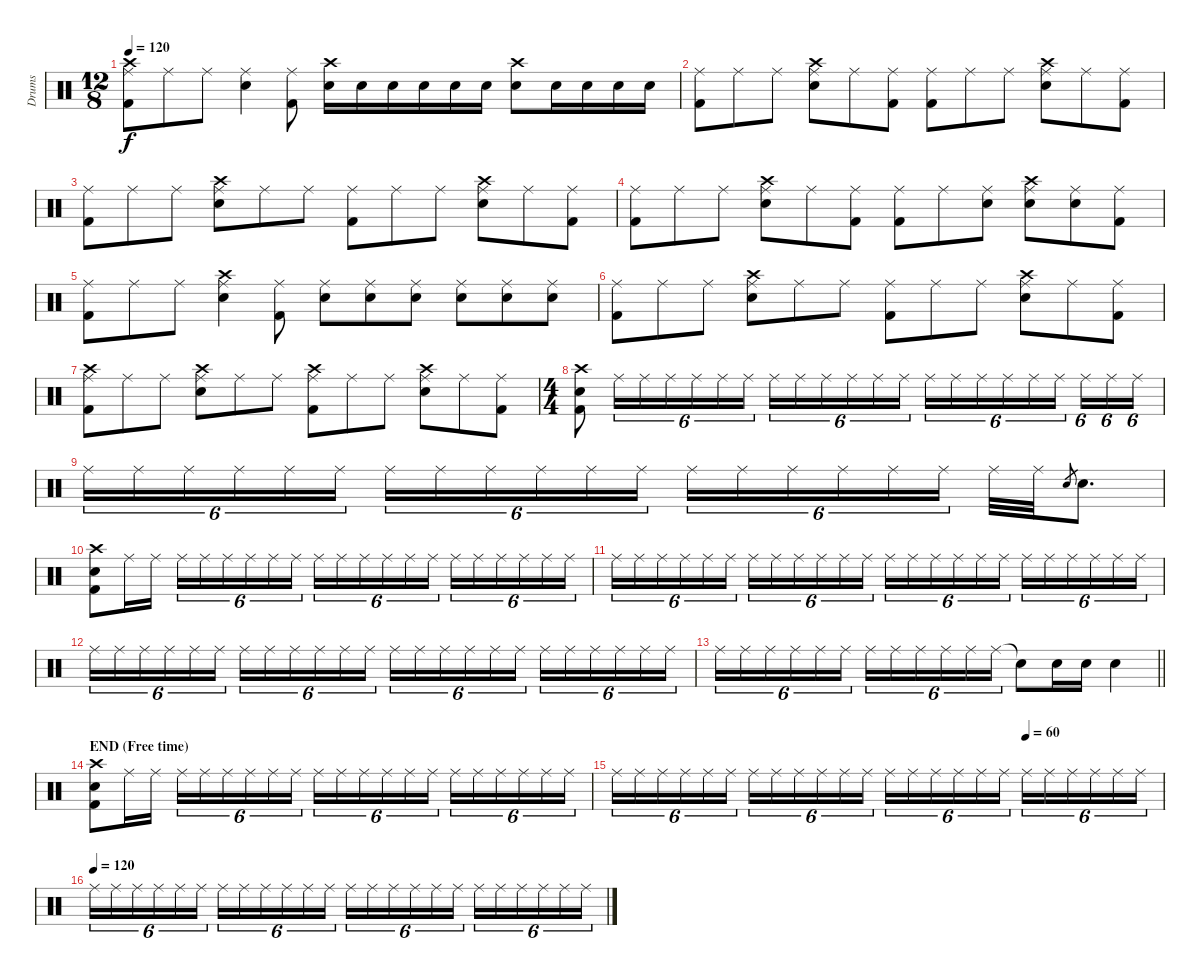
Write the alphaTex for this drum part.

\track ("Drums" "Drums") {instrument percussion}
\staff {score}
\articulation defaults
\ts (12 8)
\tempo 120
\clef neutral
\ks c
("Crash high (hit)" "Ride (middle)" "Kick (hit) 2").8{dy f} "Ride (middle)".8 "Ride (middle)".8 ("Ride (middle)" "Electric Snare (hit)").4 ("Ride (middle)" "Kick (hit) 2").8 ("Crash high (hit)" "Electric Snare (hit)").16 "Electric Snare (hit)".16 "Electric Snare (hit)".16 "Electric Snare (hit)".16 "Electric Snare (hit)".16 "Electric Snare (hit)".16 ("Crash high (hit)" "Electric Snare (hit)").8 "Electric Snare (hit)".16 "Electric Snare (hit)".16 "Electric Snare (hit)".16 "Electric Snare (hit)".16 |
("Ride (middle)" "Kick (hit) 2").8 "Ride (middle)".8 "Ride (middle)".8 ("Crash high (hit)" "Ride (middle)" "Electric Snare (hit)").8 "Ride (middle)".8 ("Ride (middle)" "Kick (hit) 2").8 ("Ride (middle)" "Kick (hit) 2").8 "Ride (middle)".8 "Ride (middle)".8 ("Crash high (hit)" "Ride (middle)" "Electric Snare (hit)").8 "Ride (middle)".8 ("Ride (middle)" "Kick (hit) 2").8 |
("Ride (middle)" "Kick (hit) 2").8 "Ride (middle)".8 "Ride (middle)".8 ("Crash high (hit)" "Ride (middle)" "Electric Snare (hit)").8 "Ride (middle)".8 "Ride (middle)".8 ("Ride (middle)" "Kick (hit) 2").8 "Ride (middle)".8 "Ride (middle)".8 ("Crash high (hit)" "Ride (middle)" "Electric Snare (hit)").8 "Ride (middle)".8 ("Ride (middle)" "Kick (hit) 2").8 |
("Ride (middle)" "Kick (hit) 2").8 "Ride (middle)".8 "Ride (middle)".8 ("Crash high (hit)" "Ride (middle)" "Electric Snare (hit)").8 "Ride (middle)".8 ("Ride (middle)" "Kick (hit) 2").8 ("Ride (middle)" "Kick (hit) 2").8 "Ride (middle)".8 ("Ride (middle)" "Electric Snare (hit)").8 ("Crash high (hit)" "Ride (middle)" "Electric Snare (hit)").8 ("Ride (middle)" "Electric Snare (hit)").8 ("Ride (middle)" "Kick (hit) 2").8 |
("Ride (middle)" "Kick (hit) 2").8 "Ride (middle)".8 "Ride (middle)".8 ("Crash high (hit)" "Ride (middle)" "Electric Snare (hit)").4 ("Ride (middle)" "Kick (hit) 2").8 ("Ride (middle)" "Electric Snare (hit)").8 ("Ride (middle)" "Electric Snare (hit)").8 ("Ride (middle)" "Electric Snare (hit)").8 ("Ride (middle)" "Electric Snare (hit)").8 ("Ride (middle)" "Electric Snare (hit)").8 ("Ride (middle)" "Electric Snare (hit)").8 |
("Ride (middle)" "Kick (hit) 2").8 "Ride (middle)".8 "Ride (middle)".8 ("Crash high (hit)" "Ride (middle)" "Electric Snare (hit)").8 "Ride (middle)".8 "Ride (middle)".8 ("Ride (middle)" "Kick (hit) 2").8 "Ride (middle)".8 "Ride (middle)".8 ("Crash high (hit)" "Ride (middle)" "Electric Snare (hit)").8 "Ride (middle)".8 ("Ride (middle)" "Kick (hit) 2").8 |
("Crash high (hit)" "Ride (middle)" "Kick (hit) 2").8 "Ride (middle)".8 "Ride (middle)".8 ("Crash high (hit)" "Ride (middle)" "Electric Snare (hit)").8 "Ride (middle)".8 "Ride (middle)".8 ("Crash high (hit)" "Ride (middle)" "Kick (hit) 2").8 "Ride (middle)".8 "Ride (middle)".8 ("Crash high (hit)" "Ride (middle)" "Electric Snare (hit)").8 "Ride (middle)".8 ("Ride (middle)" "Kick (hit) 2").8 |
\ts (4 4)
("Crash high (hit)" "Electric Snare (hit)" "Kick (hit) 2").8 "Ride (middle)".16{tu (6 4)} "Ride (middle)".16{tu (6 4)} "Ride (middle)".16{tu (6 4)} "Ride (middle)".16{tu (6 4)} "Ride (middle)".16{tu (6 4)} "Ride (middle)".16{tu (6 4)} "Ride (middle)".16{tu (6 4)} "Ride (middle)".16{tu (6 4)} "Ride (middle)".16{tu (6 4)} "Ride (middle)".16{tu (6 4)} "Ride (middle)".16{tu (6 4)} "Ride (middle)".16{tu (6 4)} "Ride (middle)".16{tu (6 4)} "Ride (middle)".16{tu (6 4)} "Ride (middle)".16{tu (6 4)} "Ride (middle)".16{tu (6 4)} "Ride (middle)".16{tu (6 4)} "Ride (middle)".16{tu (6 4)} "Ride (middle)".16{tu (6 4)} "Ride (middle)".16{tu (6 4)} "Ride (middle)".16{tu (6 4)} |
"Ride (middle)".16{tu (6 4)} "Ride (middle)".16{tu (6 4)} "Ride (middle)".16{tu (6 4)} "Ride (middle)".16{tu (6 4)} "Ride (middle)".16{tu (6 4)} "Ride (middle)".16{tu (6 4)} "Ride (middle)".16{tu (6 4)} "Ride (middle)".16{tu (6 4)} "Ride (middle)".16{tu (6 4)} "Ride (middle)".16{tu (6 4)} "Ride (middle)".16{tu (6 4)} "Ride (middle)".16{tu (6 4)} "Ride (middle)".16{tu (6 4)} "Ride (middle)".16{tu (6 4)} "Ride (middle)".16{tu (6 4)} "Ride (middle)".16{tu (6 4)} "Ride (middle)".16{tu (6 4)} "Ride (middle)".16{tu (6 4)} "Ride (middle)".32 "Ride (middle)".32 "Electric Snare (hit)".8{gr} "Electric Snare (hit)".8{d} |
("Crash high (hit)" "Electric Snare (hit)" "Kick (hit) 2").8 "Ride (middle)".16 "Ride (middle)".16 "Ride (middle)".16{tu (6 4)} "Ride (middle)".16{tu (6 4)} "Ride (middle)".16{tu (6 4)} "Ride (middle)".16{tu (6 4)} "Ride (middle)".16{tu (6 4)} "Ride (middle)".16{tu (6 4)} "Ride (middle)".16{tu (6 4)} "Ride (middle)".16{tu (6 4)} "Ride (middle)".16{tu (6 4)} "Ride (middle)".16{tu (6 4)} "Ride (middle)".16{tu (6 4)} "Ride (middle)".16{tu (6 4)} "Ride (middle)".16{tu (6 4)} "Ride (middle)".16{tu (6 4)} "Ride (middle)".16{tu (6 4)} "Ride (middle)".16{tu (6 4)} "Ride (middle)".16{tu (6 4)} "Ride (middle)".16{tu (6 4)} |
"Ride (middle)".16{tu (6 4)} "Ride (middle)".16{tu (6 4)} "Ride (middle)".16{tu (6 4)} "Ride (middle)".16{tu (6 4)} "Ride (middle)".16{tu (6 4)} "Ride (middle)".16{tu (6 4)} "Ride (middle)".16{tu (6 4)} "Ride (middle)".16{tu (6 4)} "Ride (middle)".16{tu (6 4)} "Ride (middle)".16{tu (6 4)} "Ride (middle)".16{tu (6 4)} "Ride (middle)".16{tu (6 4)} "Ride (middle)".16{tu (6 4)} "Ride (middle)".16{tu (6 4)} "Ride (middle)".16{tu (6 4)} "Ride (middle)".16{tu (6 4)} "Ride (middle)".16{tu (6 4)} "Ride (middle)".16{tu (6 4)} "Ride (middle)".16{tu (6 4)} "Ride (middle)".16{tu (6 4)} "Ride (middle)".16{tu (6 4)} "Ride (middle)".16{tu (6 4)} "Ride (middle)".16{tu (6 4)} "Ride (middle)".16{tu (6 4)} |
"Ride (middle)".16{tu (6 4)} "Ride (middle)".16{tu (6 4)} "Ride (middle)".16{tu (6 4)} "Ride (middle)".16{tu (6 4)} "Ride (middle)".16{tu (6 4)} "Ride (middle)".16{tu (6 4)} "Ride (middle)".16{tu (6 4)} "Ride (middle)".16{tu (6 4)} "Ride (middle)".16{tu (6 4)} "Ride (middle)".16{tu (6 4)} "Ride (middle)".16{tu (6 4)} "Ride (middle)".16{tu (6 4)} "Ride (middle)".16{tu (6 4)} "Ride (middle)".16{tu (6 4)} "Ride (middle)".16{tu (6 4)} "Ride (middle)".16{tu (6 4)} "Ride (middle)".16{tu (6 4)} "Ride (middle)".16{tu (6 4)} "Ride (middle)".16{tu (6 4)} "Ride (middle)".16{tu (6 4)} "Ride (middle)".16{tu (6 4)} "Ride (middle)".16{tu (6 4)} "Ride (middle)".16{tu (6 4)} "Ride (middle)".16{tu (6 4)} |
\barLineRight lightlight "Ride (middle)".16{tu (6 4)} "Ride (middle)".16{tu (6 4)} "Ride (middle)".16{tu (6 4)} "Ride (middle)".16{tu (6 4)} "Ride (middle)".16{tu (6 4)} "Ride (middle)".16{tu (6 4)} "Ride (middle)".16{tu (6 4)} "Ride (middle)".16{tu (6 4)} "Ride (middle)".16{tu (6 4)} "Ride (middle)".16{tu (6 4)} "Ride (middle)".16{tu (6 4)} "Ride (middle)".16{tu (6 4)} "Snare (hit)"{t}.8 "Electric Snare (hit)".16 "Electric Snare (hit)".16 "Electric Snare (hit)".4
|
\section ("" "END (Free time)")
("Crash high (hit)" "Electric Snare (hit)" "Kick (hit) 2").8 "Ride (middle)".16 "Ride (middle)".16 "Ride (middle)".16{tu (6 4)} "Ride (middle)".16{tu (6 4)} "Ride (middle)".16{tu (6 4)} "Ride (middle)".16{tu (6 4)} "Ride (middle)".16{tu (6 4)} "Ride (middle)".16{tu (6 4)} "Ride (middle)".16{tu (6 4)} "Ride (middle)".16{tu (6 4)} "Ride (middle)".16{tu (6 4)} "Ride (middle)".16{tu (6 4)} "Ride (middle)".16{tu (6 4)} "Ride (middle)".16{tu (6 4)} "Ride (middle)".16{tu (6 4)} "Ride (middle)".16{tu (6 4)} "Ride (middle)".16{tu (6 4)} "Ride (middle)".16{tu (6 4)} "Ride (middle)".16{tu (6 4)} "Ride (middle)".16{tu (6 4)} |
\tempo (60 0.75)
"Ride (middle)".16{tu (6 4)} "Ride (middle)".16{tu (6 4)} "Ride (middle)".16{tu (6 4)} "Ride (middle)".16{tu (6 4)} "Ride (middle)".16{tu (6 4)} "Ride (middle)".16{tu (6 4)} "Ride (middle)".16{tu (6 4)} "Ride (middle)".16{tu (6 4)} "Ride (middle)".16{tu (6 4)} "Ride (middle)".16{tu (6 4)} "Ride (middle)".16{tu (6 4)} "Ride (middle)".16{tu (6 4)} "Ride (middle)".16{tu (6 4)} "Ride (middle)".16{tu (6 4)} "Ride (middle)".16{tu (6 4)} "Ride (middle)".16{tu (6 4)} "Ride (middle)".16{tu (6 4)} "Ride (middle)".16{tu (6 4)} "Ride (middle)".16{tu (6 4)} "Ride (middle)".16{tu (6 4)} "Ride (middle)".16{tu (6 4)} "Ride (middle)".16{tu (6 4)} "Ride (middle)".16{tu (6 4)} "Ride (middle)".16{tu (6 4)} |
\tempo (120)
"Ride (middle)".16{tu (6 4)} "Ride (middle)".16{tu (6 4)} "Ride (middle)".16{tu (6 4)} "Ride (middle)".16{tu (6 4)} "Ride (middle)".16{tu (6 4)} "Ride (middle)".16{tu (6 4)} "Ride (middle)".16{tu (6 4)} "Ride (middle)".16{tu (6 4)} "Ride (middle)".16{tu (6 4)} "Ride (middle)".16{tu (6 4)} "Ride (middle)".16{tu (6 4)} "Ride (middle)".16{tu (6 4)} "Ride (middle)".16{tu (6 4)} "Ride (middle)".16{tu (6 4)} "Ride (middle)".16{tu (6 4)} "Ride (middle)".16{tu (6 4)} "Ride (middle)".16{tu (6 4)} "Ride (middle)".16{tu (6 4)} "Ride (middle)".16{tu (6 4)} "Ride (middle)".16{tu (6 4)} "Ride (middle)".16{tu (6 4)} "Ride (middle)".16{tu (6 4)} "Ride (middle)".16{tu (6 4)} "Ride (middle)".16{tu (6 4)}
